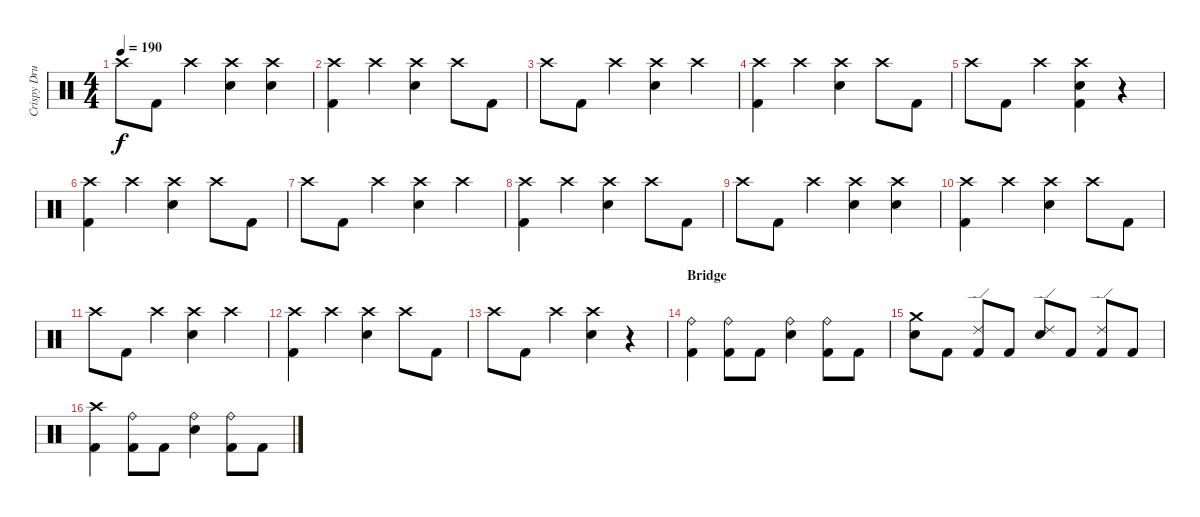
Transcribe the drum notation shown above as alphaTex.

\track ("Crispy Drums" "Crispy Dru") {instrument percussion}
\staff {score}
\articulation defaults
\ts (4 4)
\tempo 190
\clef neutral
\ks c "Crash high (hit)".8{dy f} "Kick (hit) 2".8 "Crash high (hit)".4
("Crash high (hit)" "Electric Snare (hit)").4 ("Crash high (hit)" "Electric Snare (hit)").4 |
("Crash high (hit)" "Kick (hit) 2").4 "Crash high (hit)".4 ("Crash high (hit)" "Electric Snare (hit)").4 "Crash high (hit)".8 "Kick (hit) 2".8 |
"Crash high (hit)".8 "Kick (hit) 2".8 "Crash high (hit)".4 ("Crash high (hit)" "Electric Snare (hit)").4 "Crash high (hit)".4 |
("Crash high (hit)" "Kick (hit) 2").4 "Crash high (hit)".4 ("Crash high (hit)" "Electric Snare (hit)").4 "Crash high (hit)".8 "Kick (hit) 2".8 |
"Crash high (hit)".8 "Kick (hit) 2".8 "Crash high (hit)".4 ("Crash high (hit)" "Electric Snare (hit)" "Kick (hit) 2").4 r.4 |
("Crash high (hit)" "Kick (hit) 2").4 "Crash high (hit)".4 ("Crash high (hit)" "Electric Snare (hit)").4 "Crash high (hit)".8 "Kick (hit) 2".8 |
"Crash high (hit)".8 "Kick (hit) 2".8 "Crash high (hit)".4 ("Crash high (hit)" "Electric Snare (hit)").4 "Crash high (hit)".4 |
("Crash high (hit)" "Kick (hit) 2").4 "Crash high (hit)".4 ("Crash high (hit)" "Electric Snare (hit)").4 "Crash high (hit)".8 "Kick (hit) 2".8 |
"Crash high (hit)".8 "Kick (hit) 2".8 "Crash high (hit)".4 ("Crash high (hit)" "Electric Snare (hit)").4 ("Crash high (hit)" "Electric Snare (hit)").4 |
("Crash high (hit)" "Kick (hit) 2").4 "Crash high (hit)".4 ("Crash high (hit)" "Electric Snare (hit)").4 "Crash high (hit)".8 "Kick (hit) 2".8 |
"Crash high (hit)".8 "Kick (hit) 2".8 "Crash high (hit)".4 ("Crash high (hit)" "Electric Snare (hit)").4 "Crash high (hit)".4 |
("Crash high (hit)" "Kick (hit) 2").4 "Crash high (hit)".4 ("Crash high (hit)" "Electric Snare (hit)").4 "Crash high (hit)".8 "Kick (hit) 2".8 |
"Crash high (hit)".8 "Kick (hit) 2".8 "Crash high (hit)".4 ("Crash high (hit)" "Electric Snare (hit)").4 r.4 |
\section ("" "Bridge")
("Ride (bell)" "Kick (hit) 2").4 ("Ride (bell)" "Kick (hit) 2").8 "Kick (hit) 2".8 ("Ride (bell)" "Electric Snare (hit)").4 ("Ride (bell)" "Kick (hit) 2").8 "Kick (hit) 2".8 |
("Crash medium (hit)" "Electric Snare (hit)").8 "Kick (hit) 2".8 ("Ride (edge) 2" "Kick (hit) 2").8 "Kick (hit) 2".8 ("Ride (edge) 2" "Electric Snare (hit)").8 "Kick (hit) 2".8 ("Ride (edge) 2" "Kick (hit) 2").8 "Kick (hit) 2".8 |
("Crash high (hit)" "Kick (hit) 2").4 ("Ride (bell)" "Kick (hit) 2").8 "Kick (hit) 2".8 ("Ride (bell)" "Electric Snare (hit)").4 ("Ride (bell)" "Kick (hit) 2").8 "Kick (hit) 2".8
